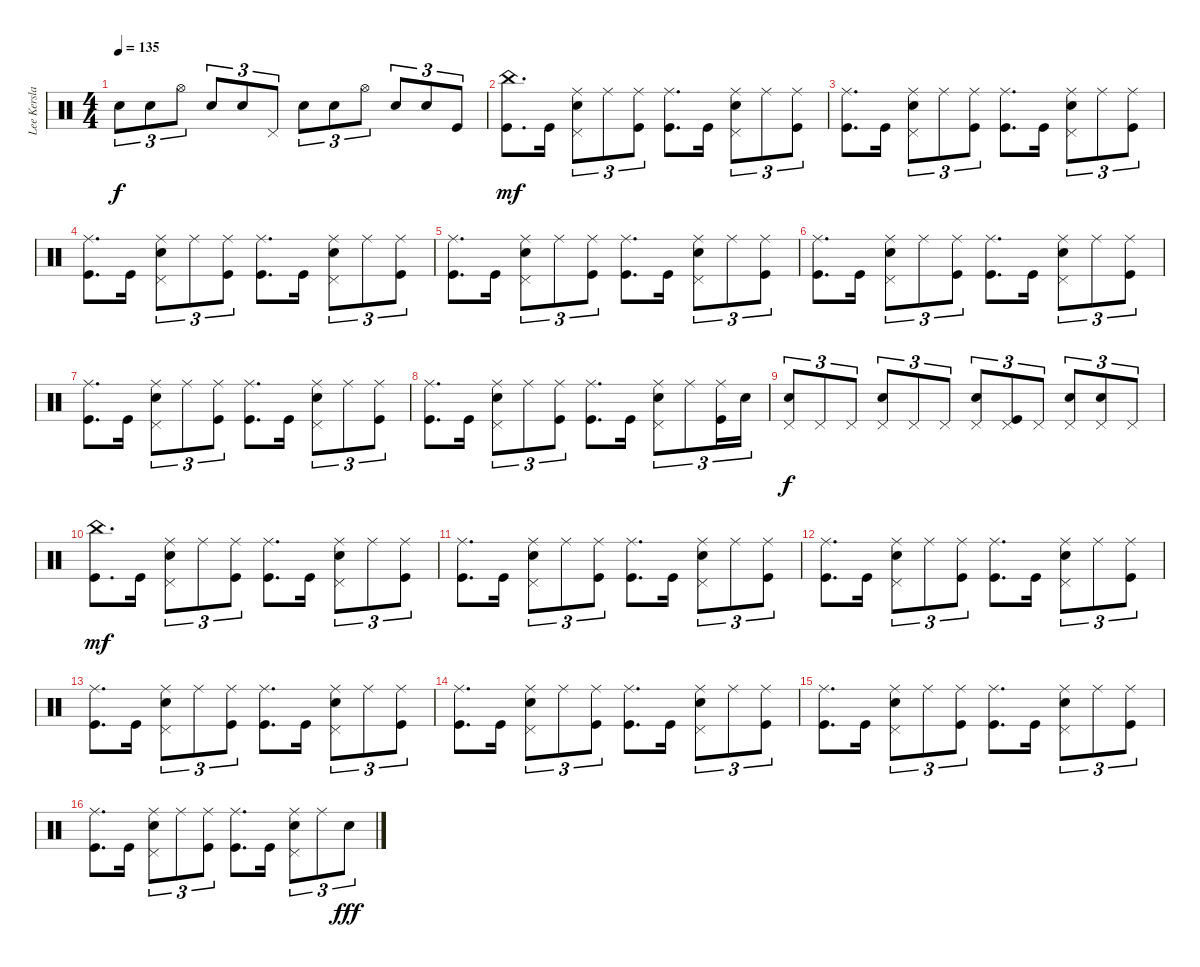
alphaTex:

\track ("Lee Kerslake (drums)" "Lee Kersla") {instrument percussion}
\staff {score}
\articulation defaults
\ts (4 4)
\tempo 135
\clef neutral
\ks c "Snare (hit) 2".8{tu (3 2) dy f} "Snare (hit) 2".8{tu (3 2)} "Hi-Hat (open)".8{tu (3 2)} "Snare (hit) 2".8{tu (3 2)} "Snare (hit) 2".8{tu (3 2)} "Pedal Hi-Hat (hit)".8{tu (3 2)} "Snare (hit) 2".8{tu (3 2)} "Snare (hit) 2".8{tu (3 2)} "Hi-Hat (open)".8{tu (3 2)} "Snare (hit) 2".8{tu (3 2)} "Snare (hit) 2".8{tu (3 2)} "Kick (hit)".8{tu (3 2)}
|
("China (hit)" "Kick (hit)").8{d dy mf} "Kick (hit)".16 ("Ride (middle)" "Pedal Hi-Hat (hit)" "Snare (hit) 2").8{tu (3 2)} "Ride (middle)".8{tu (3 2)} ("Ride (middle)" "Kick (hit)").8{tu (3 2)} ("Ride (middle)" "Kick (hit)").8{d} "Kick (hit)".16 ("Ride (middle)" "Pedal Hi-Hat (hit)" "Snare (hit) 2").8{tu (3 2)} "Ride (middle)".8{tu (3 2)} ("Ride (middle)" "Kick (hit)").8{tu (3 2)} |
("Ride (middle)" "Kick (hit)").8{d} "Kick (hit)".16 ("Ride (middle)" "Pedal Hi-Hat (hit)" "Snare (hit) 2").8{tu (3 2)} "Ride (middle)".8{tu (3 2)} ("Ride (middle)" "Kick (hit)").8{tu (3 2)} ("Ride (middle)" "Kick (hit)").8{d} "Kick (hit)".16 ("Ride (middle)" "Pedal Hi-Hat (hit)" "Snare (hit) 2").8{tu (3 2)} "Ride (middle)".8{tu (3 2)} ("Ride (middle)" "Kick (hit)").8{tu (3 2)} |
("Ride (middle)" "Kick (hit)").8{d} "Kick (hit)".16 ("Ride (middle)" "Pedal Hi-Hat (hit)" "Snare (hit) 2").8{tu (3 2)} "Ride (middle)".8{tu (3 2)} ("Ride (middle)" "Kick (hit)").8{tu (3 2)} ("Ride (middle)" "Kick (hit)").8{d} "Kick (hit)".16 ("Ride (middle)" "Pedal Hi-Hat (hit)" "Snare (hit) 2").8{tu (3 2)} "Ride (middle)".8{tu (3 2)} ("Ride (middle)" "Kick (hit)").8{tu (3 2)} |
("Ride (middle)" "Kick (hit)").8{d} "Kick (hit)".16 ("Ride (middle)" "Pedal Hi-Hat (hit)" "Snare (hit) 2").8{tu (3 2)} "Ride (middle)".8{tu (3 2)} ("Ride (middle)" "Kick (hit)").8{tu (3 2)} ("Ride (middle)" "Kick (hit)").8{d} "Kick (hit)".16 ("Ride (middle)" "Pedal Hi-Hat (hit)" "Snare (hit) 2").8{tu (3 2)} "Ride (middle)".8{tu (3 2)} ("Ride (middle)" "Kick (hit)").8{tu (3 2)} |
("Ride (middle)" "Kick (hit)").8{d} "Kick (hit)".16 ("Ride (middle)" "Pedal Hi-Hat (hit)" "Snare (hit) 2").8{tu (3 2)} "Ride (middle)".8{tu (3 2)} ("Ride (middle)" "Kick (hit)").8{tu (3 2)} ("Ride (middle)" "Kick (hit)").8{d} "Kick (hit)".16 ("Ride (middle)" "Pedal Hi-Hat (hit)" "Snare (hit) 2").8{tu (3 2)} "Ride (middle)".8{tu (3 2)} ("Ride (middle)" "Kick (hit)").8{tu (3 2)} |
("Ride (middle)" "Kick (hit)").8{d} "Kick (hit)".16 ("Ride (middle)" "Pedal Hi-Hat (hit)" "Snare (hit) 2").8{tu (3 2)} "Ride (middle)".8{tu (3 2)} ("Ride (middle)" "Kick (hit)").8{tu (3 2)} ("Ride (middle)" "Kick (hit)").8{d} "Kick (hit)".16 ("Ride (middle)" "Pedal Hi-Hat (hit)" "Snare (hit) 2").8{tu (3 2)} "Ride (middle)".8{tu (3 2)} ("Ride (middle)" "Kick (hit)").8{tu (3 2)} |
("Ride (middle)" "Kick (hit)").8{d} "Kick (hit)".16 ("Ride (middle)" "Pedal Hi-Hat (hit)" "Snare (hit) 2").8{tu (3 2)} "Ride (middle)".8{tu (3 2)} ("Ride (middle)" "Kick (hit)").8{tu (3 2)} ("Ride (middle)" "Kick (hit)").8{d} "Kick (hit)".16 ("Ride (middle)" "Pedal Hi-Hat (hit)" "Snare (hit) 2").8{tu (3 2)} "Ride (middle)".8{tu (3 2)} ("Ride (middle)" "Kick (hit)").16{tu (3 2)} "Snare (hit) 2".16{tu (3 2)} |
("Snare (hit) 2" "Pedal Hi-Hat (hit)").8{tu (3 2) dy f} "Pedal Hi-Hat (hit)".8{tu (3 2)} "Pedal Hi-Hat (hit)".8{tu (3 2)} ("Snare (hit) 2" "Pedal Hi-Hat (hit)").8{tu (3 2)} "Pedal Hi-Hat (hit)".8{tu (3 2)} "Pedal Hi-Hat (hit)".8{tu (3 2)} ("Snare (hit) 2" "Pedal Hi-Hat (hit)").8{tu (3 2)} ("Kick (hit)" "Pedal Hi-Hat (hit)").8{tu (3 2)} "Pedal Hi-Hat (hit)".8{tu (3 2)} ("Snare (hit) 2" "Pedal Hi-Hat (hit)").8{tu (3 2)} ("Snare (hit) 2" "Pedal Hi-Hat (hit)").8{tu (3 2)} "Pedal Hi-Hat (hit)".8{tu (3 2)} |
("China (hit)" "Kick (hit)").8{d dy mf} "Kick (hit)".16 ("Ride (middle)" "Pedal Hi-Hat (hit)" "Snare (hit) 2").8{tu (3 2)} "Ride (middle)".8{tu (3 2)} ("Ride (middle)" "Kick (hit)").8{tu (3 2)} ("Ride (middle)" "Kick (hit)").8{d} "Kick (hit)".16 ("Ride (middle)" "Pedal Hi-Hat (hit)" "Snare (hit) 2").8{tu (3 2)} "Ride (middle)".8{tu (3 2)} ("Ride (middle)" "Kick (hit)").8{tu (3 2)} |
("Ride (middle)" "Kick (hit)").8{d} "Kick (hit)".16 ("Ride (middle)" "Pedal Hi-Hat (hit)" "Snare (hit) 2").8{tu (3 2)} "Ride (middle)".8{tu (3 2)} ("Ride (middle)" "Kick (hit)").8{tu (3 2)} ("Ride (middle)" "Kick (hit)").8{d} "Kick (hit)".16 ("Ride (middle)" "Pedal Hi-Hat (hit)" "Snare (hit) 2").8{tu (3 2)} "Ride (middle)".8{tu (3 2)} ("Ride (middle)" "Kick (hit)").8{tu (3 2)} |
("Ride (middle)" "Kick (hit)").8{d} "Kick (hit)".16 ("Ride (middle)" "Pedal Hi-Hat (hit)" "Snare (hit) 2").8{tu (3 2)} "Ride (middle)".8{tu (3 2)} ("Ride (middle)" "Kick (hit)").8{tu (3 2)} ("Ride (middle)" "Kick (hit)").8{d} "Kick (hit)".16 ("Ride (middle)" "Pedal Hi-Hat (hit)" "Snare (hit) 2").8{tu (3 2)} "Ride (middle)".8{tu (3 2)} ("Ride (middle)" "Kick (hit)").8{tu (3 2)} |
("Ride (middle)" "Kick (hit)").8{d} "Kick (hit)".16 ("Ride (middle)" "Pedal Hi-Hat (hit)" "Snare (hit) 2").8{tu (3 2)} "Ride (middle)".8{tu (3 2)} ("Ride (middle)" "Kick (hit)").8{tu (3 2)} ("Ride (middle)" "Kick (hit)").8{d} "Kick (hit)".16 ("Ride (middle)" "Pedal Hi-Hat (hit)" "Snare (hit) 2").8{tu (3 2)} "Ride (middle)".8{tu (3 2)} ("Ride (middle)" "Kick (hit)").8{tu (3 2)} |
("Ride (middle)" "Kick (hit)").8{d} "Kick (hit)".16 ("Ride (middle)" "Pedal Hi-Hat (hit)" "Snare (hit) 2").8{tu (3 2)} "Ride (middle)".8{tu (3 2)} ("Ride (middle)" "Kick (hit)").8{tu (3 2)} ("Ride (middle)" "Kick (hit)").8{d} "Kick (hit)".16 ("Ride (middle)" "Pedal Hi-Hat (hit)" "Snare (hit) 2").8{tu (3 2)} "Ride (middle)".8{tu (3 2)} ("Ride (middle)" "Kick (hit)").8{tu (3 2)} |
("Ride (middle)" "Kick (hit)").8{d} "Kick (hit)".16 ("Ride (middle)" "Pedal Hi-Hat (hit)" "Snare (hit) 2").8{tu (3 2)} "Ride (middle)".8{tu (3 2)} ("Ride (middle)" "Kick (hit)").8{tu (3 2)} ("Ride (middle)" "Kick (hit)").8{d} "Kick (hit)".16 ("Ride (middle)" "Pedal Hi-Hat (hit)" "Snare (hit) 2").8{tu (3 2)} "Ride (middle)".8{tu (3 2)} ("Ride (middle)" "Kick (hit)").8{tu (3 2)} |
("Ride (middle)" "Kick (hit)").8{d} "Kick (hit)".16 ("Ride (middle)" "Pedal Hi-Hat (hit)" "Snare (hit) 2").8{tu (3 2)} "Ride (middle)".8{tu (3 2)} ("Ride (middle)" "Kick (hit)").8{tu (3 2)} ("Ride (middle)" "Kick (hit)").8{d} "Kick (hit)".16 ("Ride (middle)" "Pedal Hi-Hat (hit)" "Snare (hit) 2").8{tu (3 2)} "Ride (middle)".8{tu (3 2)} "Snare (hit) 2".8{tu (3 2) dy fff}
